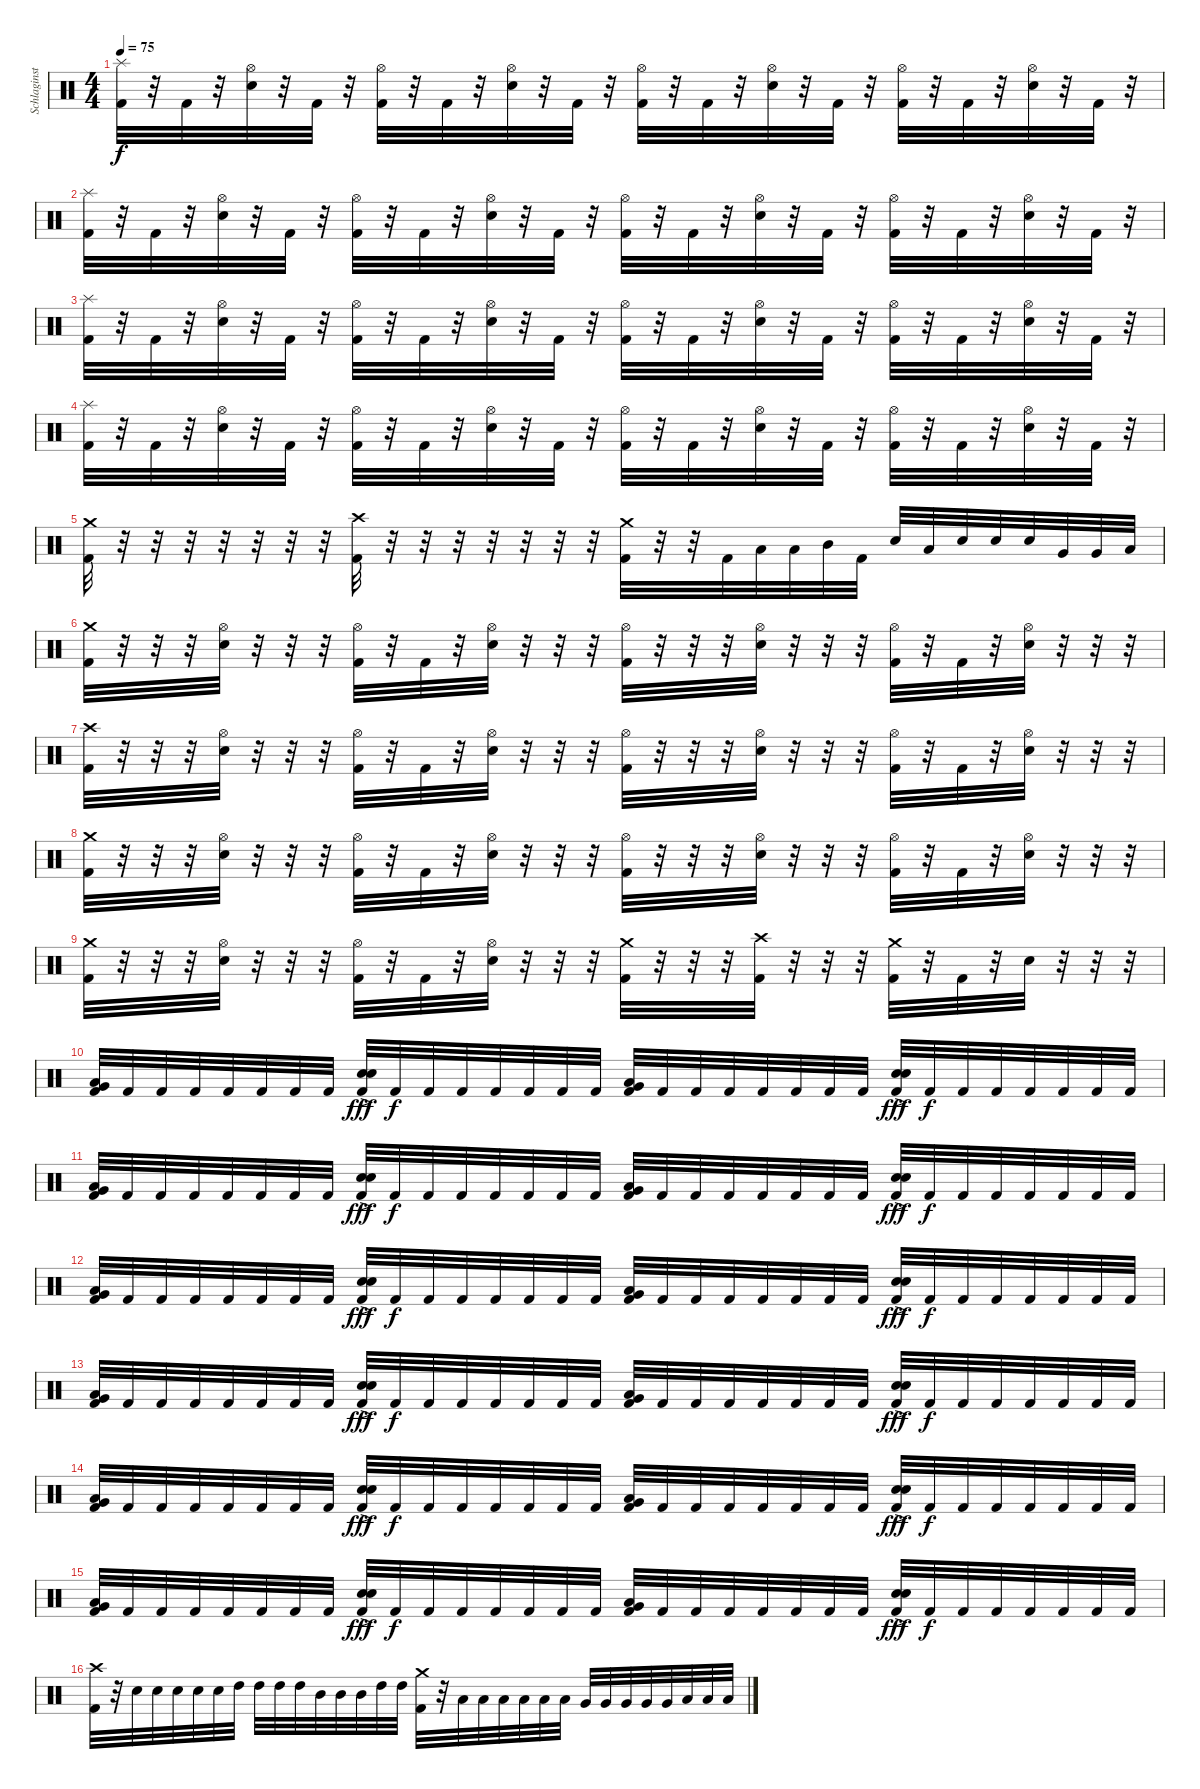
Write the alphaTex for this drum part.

\track ("Schlaginstrumente - Auswahl" "Schlaginst") {instrument percussion}
\staff {score}
\articulation defaults
\ts (4 4)
\tempo 75
\clef neutral
\ks c
("Kick (hit) 2" "Splash (hit)").32{dy f} r.32 "Kick (hit) 2".32 r.32 ("Electric Snare (hit)" "Hi-Hat (open)").32 r.32 "Kick (hit) 2".32 r.32 ("Kick (hit) 2" "Hi-Hat (open)").32 r.32 "Kick (hit) 2".32 r.32 ("Electric Snare (hit)" "Hi-Hat (open)").32 r.32 "Kick (hit) 2".32 r.32 ("Kick (hit) 2" "Hi-Hat (open)").32 r.32 "Kick (hit) 2".32 r.32 ("Electric Snare (hit)" "Hi-Hat (open)").32 r.32 "Kick (hit) 2".32 r.32 ("Kick (hit) 2" "Hi-Hat (open)").32 r.32 "Kick (hit) 2".32 r.32 ("Electric Snare (hit)" "Hi-Hat (open)").32 r.32 "Kick (hit) 2".32 r.32 |
("Kick (hit) 2" "Splash (hit)").32 r.32 "Kick (hit) 2".32 r.32 ("Electric Snare (hit)" "Hi-Hat (open)").32 r.32 "Kick (hit) 2".32 r.32 ("Kick (hit) 2" "Hi-Hat (open)").32 r.32 "Kick (hit) 2".32 r.32 ("Electric Snare (hit)" "Hi-Hat (open)").32 r.32 "Kick (hit) 2".32 r.32 ("Kick (hit) 2" "Hi-Hat (open)").32 r.32 "Kick (hit) 2".32 r.32 ("Electric Snare (hit)" "Hi-Hat (open)").32 r.32 "Kick (hit) 2".32 r.32 ("Kick (hit) 2" "Hi-Hat (open)").32 r.32 "Kick (hit) 2".32 r.32 ("Electric Snare (hit)" "Hi-Hat (open)").32 r.32 "Kick (hit) 2".32 r.32 |
("Kick (hit) 2" "Splash (hit)").32 r.32 "Kick (hit) 2".32 r.32 ("Electric Snare (hit)" "Hi-Hat (open)").32 r.32 "Kick (hit) 2".32 r.32 ("Kick (hit) 2" "Hi-Hat (open)").32 r.32 "Kick (hit) 2".32 r.32 ("Electric Snare (hit)" "Hi-Hat (open)").32 r.32 "Kick (hit) 2".32 r.32 ("Kick (hit) 2" "Hi-Hat (open)").32 r.32 "Kick (hit) 2".32 r.32 ("Electric Snare (hit)" "Hi-Hat (open)").32 r.32 "Kick (hit) 2".32 r.32 ("Kick (hit) 2" "Hi-Hat (open)").32 r.32 "Kick (hit) 2".32 r.32 ("Electric Snare (hit)" "Hi-Hat (open)").32 r.32 "Kick (hit) 2".32 r.32 |
("Kick (hit) 2" "Splash (hit)").32 r.32 "Kick (hit) 2".32 r.32 ("Electric Snare (hit)" "Hi-Hat (open)").32 r.32 "Kick (hit) 2".32 r.32 ("Kick (hit) 2" "Hi-Hat (open)").32 r.32 "Kick (hit) 2".32 r.32 ("Electric Snare (hit)" "Hi-Hat (open)").32 r.32 "Kick (hit) 2".32 r.32 ("Kick (hit) 2" "Hi-Hat (open)").32 r.32 "Kick (hit) 2".32 r.32 ("Electric Snare (hit)" "Hi-Hat (open)").32 r.32 "Kick (hit) 2".32 r.32 ("Kick (hit) 2" "Hi-Hat (open)").32 r.32 "Kick (hit) 2".32 r.32 ("Electric Snare (hit)" "Hi-Hat (open)").32 r.32 "Kick (hit) 2".32 r.32 |
("Kick (hit) 2" "Crash medium (hit)").32 r.32 r.32 r.32 r.32 r.32 r.32 r.32 ("Kick (hit) 2" "Crash high (hit)").32 r.32 r.32 r.32 r.32 r.32 r.32 r.32 ("Kick (hit) 2" "Crash medium (hit)").32 r.32 r.32 "Kick (hit) 2".32 "Low Tom (hit)".32 "Low Tom (hit)".32 "Mid Tom (hit)".32 "Kick (hit) 2".32 "Electric Snare (hit)".32 "Low Tom (hit)".32 "Electric Snare (hit)".32 "Electric Snare (hit)".32 "Electric Snare (hit)".32 "Very Low Tom (hit)".32 "Very Low Tom (hit)".32 "Low Floor Tom (hit)".32 |
("Kick (hit) 2" "Crash medium (hit)").32 r.32 r.32 r.32 ("Electric Snare (hit)" "Hi-Hat (open)").32 r.32 r.32 r.32 ("Kick (hit) 2" "Hi-Hat (open)").32 r.32 "Kick (hit) 2".32 r.32 ("Electric Snare (hit)" "Hi-Hat (open)").32 r.32 r.32 r.32 ("Kick (hit) 2" "Hi-Hat (open)").32 r.32 r.32 r.32 ("Electric Snare (hit)" "Hi-Hat (open)").32 r.32 r.32 r.32 ("Kick (hit) 2" "Hi-Hat (open)").32 r.32 "Kick (hit) 2".32 r.32 ("Electric Snare (hit)" "Hi-Hat (open)").32 r.32 r.32 r.32 |
("Kick (hit) 2" "Crash high (hit)").32 r.32 r.32 r.32 ("Electric Snare (hit)" "Hi-Hat (open)").32 r.32 r.32 r.32 ("Kick (hit) 2" "Hi-Hat (open)").32 r.32 "Kick (hit) 2".32 r.32 ("Electric Snare (hit)" "Hi-Hat (open)").32 r.32 r.32 r.32 ("Kick (hit) 2" "Hi-Hat (open)").32 r.32 r.32 r.32 ("Electric Snare (hit)" "Hi-Hat (open)").32 r.32 r.32 r.32 ("Kick (hit) 2" "Hi-Hat (open)").32 r.32 "Kick (hit) 2".32 r.32 ("Electric Snare (hit)" "Hi-Hat (open)").32 r.32 r.32 r.32 |
("Kick (hit) 2" "Crash medium (hit)").32 r.32 r.32 r.32 ("Electric Snare (hit)" "Hi-Hat (open)").32 r.32 r.32 r.32 ("Kick (hit) 2" "Hi-Hat (open)").32 r.32 "Kick (hit) 2".32 r.32 ("Electric Snare (hit)" "Hi-Hat (open)").32 r.32 r.32 r.32 ("Kick (hit) 2" "Hi-Hat (open)").32 r.32 r.32 r.32 ("Electric Snare (hit)" "Hi-Hat (open)").32 r.32 r.32 r.32 ("Kick (hit) 2" "Hi-Hat (open)").32 r.32 "Kick (hit) 2".32 r.32 ("Electric Snare (hit)" "Hi-Hat (open)").32 r.32 r.32 r.32 |
("Kick (hit) 2" "Crash medium (hit)").32 r.32 r.32 r.32 ("Electric Snare (hit)" "Hi-Hat (open)").32 r.32 r.32 r.32 ("Kick (hit) 2" "Hi-Hat (open)").32 r.32 "Kick (hit) 2".32 r.32 ("Electric Snare (hit)" "Hi-Hat (open)").32 r.32 r.32 r.32 ("Kick (hit) 2" "Crash medium (hit)").32 r.32 r.32 r.32 ("Kick (hit) 2" "Crash high (hit)").32 r.32 r.32 r.32 ("Kick (hit) 2" "Crash medium (hit)").32 r.32 "Kick (hit) 2".32 r.32 "Electric Snare (hit)".32 r.32 r.32 r.32 |
("Kick (hit) 2" "Very Low Tom (hit)" "Low Tom (hit)").32 "Kick (hit) 2".32 "Kick (hit) 2".32 "Kick (hit) 2".32 "Kick (hit) 2".32 "Kick (hit) 2".32 "Kick (hit) 2".32 "Kick (hit) 2".32 ("Kick (hit) 2" "Electric Snare (hit)"{ac} "Electric Snare (hit)"{ac}).32{dy fff} "Kick (hit) 2".32{dy f} "Kick (hit) 2".32 "Kick (hit) 2".32 "Kick (hit) 2".32 "Kick (hit) 2".32 "Kick (hit) 2".32 "Kick (hit) 2".32 ("Kick (hit) 2" "Very Low Tom (hit)" "Low Tom (hit)").32 "Kick (hit) 2".32 "Kick (hit) 2".32 "Kick (hit) 2".32 "Kick (hit) 2".32 "Kick (hit) 2".32 "Kick (hit) 2".32 "Kick (hit) 2".32 ("Kick (hit) 2" "Electric Snare (hit)"{ac} "Electric Snare (hit)"{ac}).32{dy fff} "Kick (hit) 2".32{dy f} "Kick (hit) 2".32 "Kick (hit) 2".32 "Kick (hit) 2".32 "Kick (hit) 2".32 "Kick (hit) 2".32 "Kick (hit) 2".32 |
("Kick (hit) 2" "Very Low Tom (hit)" "Low Tom (hit)").32 "Kick (hit) 2".32 "Kick (hit) 2".32 "Kick (hit) 2".32 "Kick (hit) 2".32 "Kick (hit) 2".32 "Kick (hit) 2".32 "Kick (hit) 2".32 ("Kick (hit) 2" "Electric Snare (hit)"{ac} "Electric Snare (hit)"{ac}).32{dy fff} "Kick (hit) 2".32{dy f} "Kick (hit) 2".32 "Kick (hit) 2".32 "Kick (hit) 2".32 "Kick (hit) 2".32 "Kick (hit) 2".32 "Kick (hit) 2".32 ("Kick (hit) 2" "Very Low Tom (hit)" "Low Tom (hit)").32 "Kick (hit) 2".32 "Kick (hit) 2".32 "Kick (hit) 2".32 "Kick (hit) 2".32 "Kick (hit) 2".32 "Kick (hit) 2".32 "Kick (hit) 2".32 ("Kick (hit) 2" "Electric Snare (hit)"{ac} "Electric Snare (hit)"{ac}).32{dy fff} "Kick (hit) 2".32{dy f} "Kick (hit) 2".32 "Kick (hit) 2".32 "Kick (hit) 2".32 "Kick (hit) 2".32 "Kick (hit) 2".32 "Kick (hit) 2".32 |
("Kick (hit) 2" "Very Low Tom (hit)" "Low Tom (hit)").32 "Kick (hit) 2".32 "Kick (hit) 2".32 "Kick (hit) 2".32 "Kick (hit) 2".32 "Kick (hit) 2".32 "Kick (hit) 2".32 "Kick (hit) 2".32 ("Kick (hit) 2" "Electric Snare (hit)"{ac} "Electric Snare (hit)"{ac}).32{dy fff} "Kick (hit) 2".32{dy f} "Kick (hit) 2".32 "Kick (hit) 2".32 "Kick (hit) 2".32 "Kick (hit) 2".32 "Kick (hit) 2".32 "Kick (hit) 2".32 ("Kick (hit) 2" "Very Low Tom (hit)" "Low Tom (hit)").32 "Kick (hit) 2".32 "Kick (hit) 2".32 "Kick (hit) 2".32 "Kick (hit) 2".32 "Kick (hit) 2".32 "Kick (hit) 2".32 "Kick (hit) 2".32 ("Kick (hit) 2" "Electric Snare (hit)"{ac} "Electric Snare (hit)"{ac}).32{dy fff} "Kick (hit) 2".32{dy f} "Kick (hit) 2".32 "Kick (hit) 2".32 "Kick (hit) 2".32 "Kick (hit) 2".32 "Kick (hit) 2".32 "Kick (hit) 2".32 |
("Kick (hit) 2" "Very Low Tom (hit)" "Low Tom (hit)").32 "Kick (hit) 2".32 "Kick (hit) 2".32 "Kick (hit) 2".32 "Kick (hit) 2".32 "Kick (hit) 2".32 "Kick (hit) 2".32 "Kick (hit) 2".32 ("Kick (hit) 2" "Electric Snare (hit)"{ac} "Electric Snare (hit)"{ac}).32{dy fff} "Kick (hit) 2".32{dy f} "Kick (hit) 2".32 "Kick (hit) 2".32 "Kick (hit) 2".32 "Kick (hit) 2".32 "Kick (hit) 2".32 "Kick (hit) 2".32 ("Kick (hit) 2" "Very Low Tom (hit)" "Low Tom (hit)").32 "Kick (hit) 2".32 "Kick (hit) 2".32 "Kick (hit) 2".32 "Kick (hit) 2".32 "Kick (hit) 2".32 "Kick (hit) 2".32 "Kick (hit) 2".32 ("Kick (hit) 2" "Electric Snare (hit)"{ac} "Electric Snare (hit)"{ac}).32{dy fff} "Kick (hit) 2".32{dy f} "Kick (hit) 2".32 "Kick (hit) 2".32 "Kick (hit) 2".32 "Kick (hit) 2".32 "Kick (hit) 2".32 "Kick (hit) 2".32 |
("Kick (hit) 2" "Very Low Tom (hit)" "Low Tom (hit)").32 "Kick (hit) 2".32 "Kick (hit) 2".32 "Kick (hit) 2".32 "Kick (hit) 2".32 "Kick (hit) 2".32 "Kick (hit) 2".32 "Kick (hit) 2".32 ("Kick (hit) 2" "Electric Snare (hit)"{ac} "Electric Snare (hit)"{ac}).32{dy fff} "Kick (hit) 2".32{dy f} "Kick (hit) 2".32 "Kick (hit) 2".32 "Kick (hit) 2".32 "Kick (hit) 2".32 "Kick (hit) 2".32 "Kick (hit) 2".32 ("Kick (hit) 2" "Very Low Tom (hit)" "Low Tom (hit)").32 "Kick (hit) 2".32 "Kick (hit) 2".32 "Kick (hit) 2".32 "Kick (hit) 2".32 "Kick (hit) 2".32 "Kick (hit) 2".32 "Kick (hit) 2".32 ("Kick (hit) 2" "Electric Snare (hit)"{ac} "Electric Snare (hit)"{ac}).32{dy fff} "Kick (hit) 2".32{dy f} "Kick (hit) 2".32 "Kick (hit) 2".32 "Kick (hit) 2".32 "Kick (hit) 2".32 "Kick (hit) 2".32 "Kick (hit) 2".32 |
("Kick (hit) 2" "Very Low Tom (hit)" "Low Tom (hit)").32 "Kick (hit) 2".32 "Kick (hit) 2".32 "Kick (hit) 2".32 "Kick (hit) 2".32 "Kick (hit) 2".32 "Kick (hit) 2".32 "Kick (hit) 2".32 ("Kick (hit) 2" "Electric Snare (hit)"{ac} "Electric Snare (hit)"{ac}).32{dy fff} "Kick (hit) 2".32{dy f} "Kick (hit) 2".32 "Kick (hit) 2".32 "Kick (hit) 2".32 "Kick (hit) 2".32 "Kick (hit) 2".32 "Kick (hit) 2".32 ("Kick (hit) 2" "Very Low Tom (hit)" "Low Tom (hit)").32 "Kick (hit) 2".32 "Kick (hit) 2".32 "Kick (hit) 2".32 "Kick (hit) 2".32 "Kick (hit) 2".32 "Kick (hit) 2".32 "Kick (hit) 2".32 ("Kick (hit) 2" "Electric Snare (hit)"{ac} "Electric Snare (hit)"{ac}).32{dy fff} "Kick (hit) 2".32{dy f} "Kick (hit) 2".32 "Kick (hit) 2".32 "Kick (hit) 2".32 "Kick (hit) 2".32 "Kick (hit) 2".32 "Kick (hit) 2".32 |
("Kick (hit) 2" "Crash high (hit)").32 r.32 "Electric Snare (hit)".32 "Electric Snare (hit)".32 "Electric Snare (hit)".32 "Electric Snare (hit)".32 "Electric Snare (hit)".32 "High Tom (hit)".32 "High Tom (hit)".32 "High Tom (hit)".32 "High Tom (hit)".32 "Mid Tom (hit)".32 "Mid Tom (hit)".32 "Mid Tom (hit)".32 "High Tom (hit)".32 "High Tom (hit)".32 ("Kick (hit) 2" "Crash medium (hit)").32 r.32 "Low Tom (hit)".32 "Low Tom (hit)".32 "Low Tom (hit)".32 "Low Tom (hit)".32 "Low Tom (hit)".32 "Low Tom (hit)".32 "Very Low Tom (hit)".32 "Very Low Tom (hit)".32 "Very Low Tom (hit)".32 "Very Low Tom (hit)".32 "Very Low Tom (hit)".32 "Low Floor Tom (hit)".32 "Low Floor Tom (hit)".32 "Low Floor Tom (hit)".32
